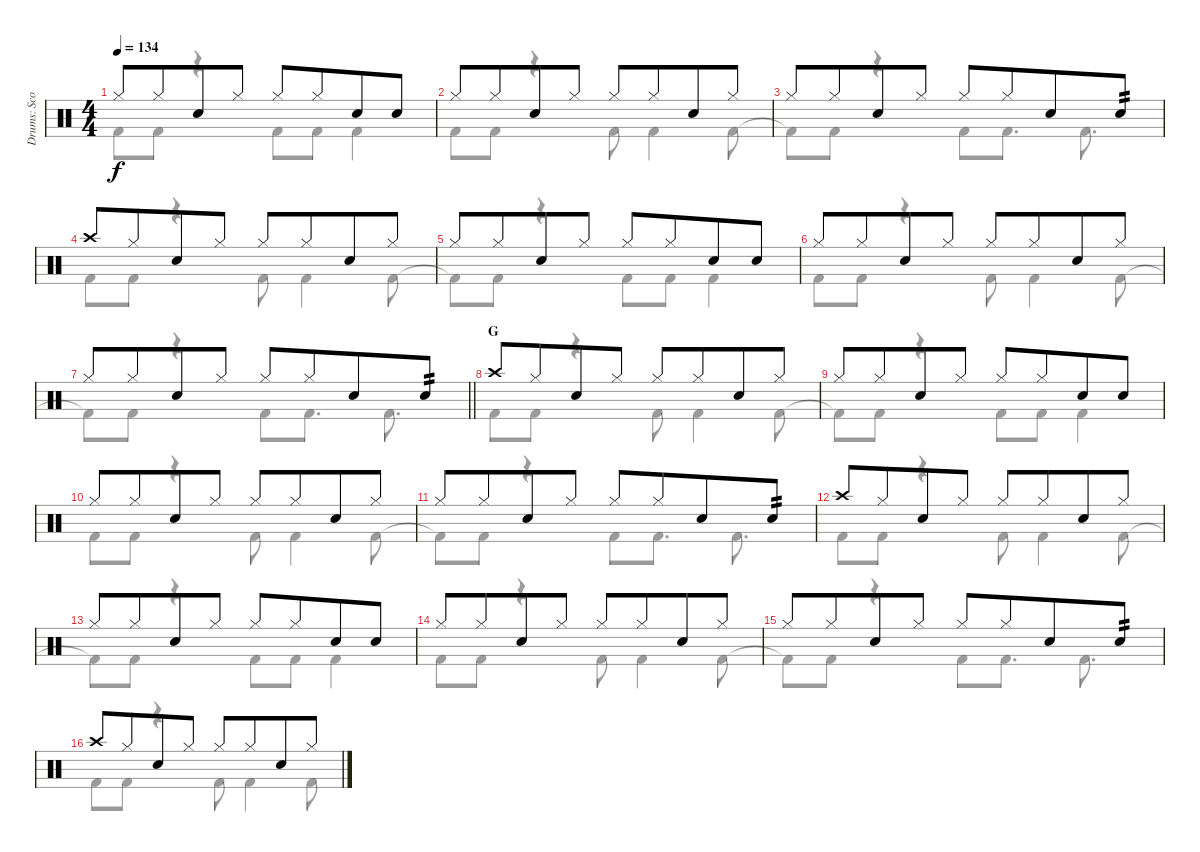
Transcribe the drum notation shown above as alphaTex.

\track ("Drums: Scott" "Drums: Sco") {instrument percussion}
\staff {score}
\articulation defaults
\voice
\ts (4 4)
\tempo 134
\clef neutral
\ks c "Hi-Hat (closed)".8{dy f} "Hi-Hat (closed)".8{beam merge} "Snare (hit) 2".8 "Hi-Hat (closed)".8 "Hi-Hat (closed)".8 "Hi-Hat (closed)".8{beam merge} "Snare (hit) 2".8 "Snare (hit) 2".8
|
"Hi-Hat (closed)".8 "Hi-Hat (closed)".8{beam merge} "Snare (hit) 2".8 "Hi-Hat (closed)".8 "Hi-Hat (closed)".8 "Hi-Hat (closed)".8{beam merge} "Snare (hit) 2".8 "Hi-Hat (closed)".8 |
"Hi-Hat (closed)".8 "Hi-Hat (closed)".8{beam merge} "Snare (hit) 2".8 "Hi-Hat (closed)".8 "Hi-Hat (closed)".8 "Hi-Hat (closed)".8{beam merge} "Snare (hit) 2".8 "Snare (hit) 2".8{tp 2} |
"Crash high (hit)".8 "Hi-Hat (closed)".8{beam merge} "Snare (hit) 2".8 "Hi-Hat (closed)".8 "Hi-Hat (closed)".8 "Hi-Hat (closed)".8{beam merge} "Snare (hit) 2".8 "Hi-Hat (closed)".8 |
"Hi-Hat (closed)".8 "Hi-Hat (closed)".8{beam merge} "Snare (hit) 2".8 "Hi-Hat (closed)".8 "Hi-Hat (closed)".8 "Hi-Hat (closed)".8{beam merge} "Snare (hit) 2".8 "Snare (hit) 2".8 |
"Hi-Hat (closed)".8 "Hi-Hat (closed)".8{beam merge} "Snare (hit) 2".8 "Hi-Hat (closed)".8 "Hi-Hat (closed)".8 "Hi-Hat (closed)".8{beam merge} "Snare (hit) 2".8 "Hi-Hat (closed)".8 |
\barLineRight lightlight "Hi-Hat (closed)".8 "Hi-Hat (closed)".8{beam merge} "Snare (hit) 2".8 "Hi-Hat (closed)".8 "Hi-Hat (closed)".8 "Hi-Hat (closed)".8{beam merge} "Snare (hit) 2".8 "Snare (hit) 2".8{tp 2}
|
\section ("" "G")
"Crash high (hit)".8 "Hi-Hat (closed)".8{beam merge} "Snare (hit) 2".8 "Hi-Hat (closed)".8 "Hi-Hat (closed)".8 "Hi-Hat (closed)".8{beam merge} "Snare (hit) 2".8 "Hi-Hat (closed)".8 |
"Hi-Hat (closed)".8 "Hi-Hat (closed)".8{beam merge} "Snare (hit) 2".8 "Hi-Hat (closed)".8 "Hi-Hat (closed)".8 "Hi-Hat (closed)".8{beam merge} "Snare (hit) 2".8 "Snare (hit) 2".8 |
"Hi-Hat (closed)".8 "Hi-Hat (closed)".8{beam merge} "Snare (hit) 2".8 "Hi-Hat (closed)".8 "Hi-Hat (closed)".8 "Hi-Hat (closed)".8{beam merge} "Snare (hit) 2".8 "Hi-Hat (closed)".8 |
"Hi-Hat (closed)".8 "Hi-Hat (closed)".8{beam merge} "Snare (hit) 2".8 "Hi-Hat (closed)".8 "Hi-Hat (closed)".8 "Hi-Hat (closed)".8{beam merge} "Snare (hit) 2".8 "Snare (hit) 2".8{tp 2} |
"Crash high (hit)".8 "Hi-Hat (closed)".8{beam merge} "Snare (hit) 2".8 "Hi-Hat (closed)".8 "Hi-Hat (closed)".8 "Hi-Hat (closed)".8{beam merge} "Snare (hit) 2".8 "Hi-Hat (closed)".8 |
"Hi-Hat (closed)".8 "Hi-Hat (closed)".8{beam merge} "Snare (hit) 2".8 "Hi-Hat (closed)".8 "Hi-Hat (closed)".8 "Hi-Hat (closed)".8{beam merge} "Snare (hit) 2".8 "Snare (hit) 2".8 |
"Hi-Hat (closed)".8 "Hi-Hat (closed)".8{beam merge} "Snare (hit) 2".8 "Hi-Hat (closed)".8 "Hi-Hat (closed)".8 "Hi-Hat (closed)".8{beam merge} "Snare (hit) 2".8 "Hi-Hat (closed)".8 |
"Hi-Hat (closed)".8 "Hi-Hat (closed)".8{beam merge} "Snare (hit) 2".8 "Hi-Hat (closed)".8 "Hi-Hat (closed)".8 "Hi-Hat (closed)".8{beam merge} "Snare (hit) 2".8 "Snare (hit) 2".8{tp 2} |
"Crash high (hit)".8 "Hi-Hat (closed)".8{beam merge} "Snare (hit) 2".8 "Hi-Hat (closed)".8 "Hi-Hat (closed)".8 "Hi-Hat (closed)".8{beam merge} "Snare (hit) 2".8 "Hi-Hat (closed)".8
\voice
\clef neutral
\ottava regular
\simile none
\ks c "Kick (hit) 2"{t}.8{dy f} "Kick (hit) 2".8
r.4 "Kick (hit) 2".8 "Kick (hit) 2".8 "Kick (hit) 2".4 |
"Kick (hit) 2".8 "Kick (hit) 2".8 r.4 "Kick (hit) 2".8 "Kick (hit) 2".4 "Kick (hit) 2".8 |
"Kick (hit) 2"{t}.8 "Kick (hit) 2".8 r.4 "Kick (hit) 2".8 "Kick (hit) 2".8{d} "Kick (hit) 2".8{d} |
"Kick (hit) 2".8 "Kick (hit) 2".8 r.4 "Kick (hit) 2".8 "Kick (hit) 2".4 "Kick (hit) 2".8 |
"Kick (hit) 2"{t}.8 "Kick (hit) 2".8 r.4 "Kick (hit) 2".8 "Kick (hit) 2".8 "Kick (hit) 2".4 |
"Kick (hit) 2".8 "Kick (hit) 2".8 r.4 "Kick (hit) 2".8 "Kick (hit) 2".4 "Kick (hit) 2".8 |
\barLineRight lightlight "Kick (hit) 2"{t}.8 "Kick (hit) 2".8
r.4 "Kick (hit) 2".8 "Kick (hit) 2".8{d} "Kick (hit) 2".8{d} |
"Kick (hit) 2".8 "Kick (hit) 2".8 r.4 "Kick (hit) 2".8 "Kick (hit) 2".4 "Kick (hit) 2".8 |
"Kick (hit) 2"{t}.8 "Kick (hit) 2".8 r.4 "Kick (hit) 2".8 "Kick (hit) 2".8 "Kick (hit) 2".4 |
"Kick (hit) 2".8 "Kick (hit) 2".8 r.4 "Kick (hit) 2".8 "Kick (hit) 2".4 "Kick (hit) 2".8 |
"Kick (hit) 2"{t}.8 "Kick (hit) 2".8 r.4 "Kick (hit) 2".8 "Kick (hit) 2".8{d} "Kick (hit) 2".8{d} |
"Kick (hit) 2".8 "Kick (hit) 2".8 r.4 "Kick (hit) 2".8 "Kick (hit) 2".4 "Kick (hit) 2".8 |
"Kick (hit) 2"{t}.8 "Kick (hit) 2".8 r.4 "Kick (hit) 2".8 "Kick (hit) 2".8 "Kick (hit) 2".4 |
"Kick (hit) 2".8 "Kick (hit) 2".8 r.4 "Kick (hit) 2".8 "Kick (hit) 2".4 "Kick (hit) 2".8 |
"Kick (hit) 2"{t}.8 "Kick (hit) 2".8 r.4 "Kick (hit) 2".8 "Kick (hit) 2".8{d} "Kick (hit) 2".8{d} |
"Kick (hit) 2".8 "Kick (hit) 2".8 r.4 "Kick (hit) 2".8 "Kick (hit) 2".4 "Kick (hit) 2".8
